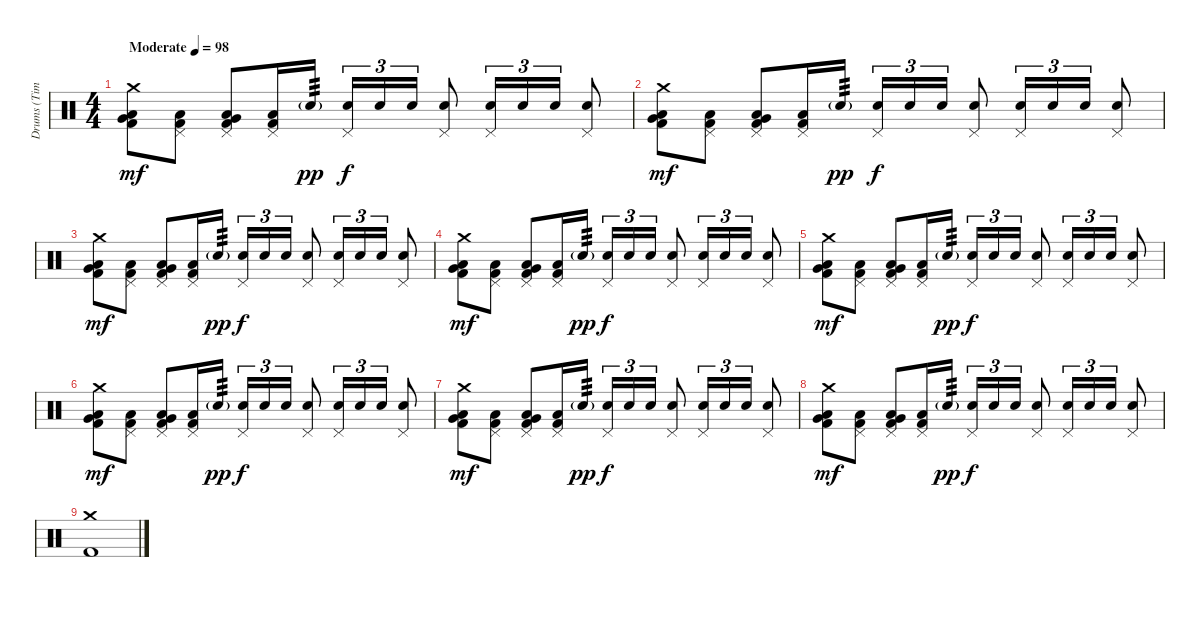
\track ("Drums (Tim Alexander)" "Drums (Tim") {instrument percussion}
\staff {score}
\articulation defaults
\ts (4 4)
\tempo (98 "Moderate")
\clef neutral
\ks c
("Crash medium (hit)" "Very Low Tom (hit)" "Low Floor Tom (hit)" "Kick (hit) 2").8{dy mf} ("Pedal Hi-Hat (hit)" "Low Floor Tom (hit)" "Kick (hit) 2").8 ("Pedal Hi-Hat (hit)" "Very Low Tom (hit)" "Low Floor Tom (hit)" "Kick (hit) 2").8 ("Pedal Hi-Hat (hit)" "Low Floor Tom (hit)" "Kick (hit) 2").16 "Electric Snare (hit)"{g}.16{tp 3 dy pp} ("Pedal Hi-Hat (hit)" "Electric Snare (hit)").16{tu (3 2) dy f} "Electric Snare (hit)".16{tu (3 2)} "Electric Snare (hit)".16{tu (3 2)} ("Pedal Hi-Hat (hit)" "Electric Snare (hit)").8 ("Pedal Hi-Hat (hit)" "Electric Snare (hit)").16{tu (3 2)} "Electric Snare (hit)".16{tu (3 2)} "Electric Snare (hit)".16{tu (3 2)} ("Pedal Hi-Hat (hit)" "Electric Snare (hit)").8 |
("Crash medium (hit)" "Very Low Tom (hit)" "Low Floor Tom (hit)" "Kick (hit) 2").8{dy mf} ("Pedal Hi-Hat (hit)" "Low Floor Tom (hit)" "Kick (hit) 2").8 ("Pedal Hi-Hat (hit)" "Very Low Tom (hit)" "Low Floor Tom (hit)" "Kick (hit) 2").8 ("Pedal Hi-Hat (hit)" "Low Floor Tom (hit)" "Kick (hit) 2").16 "Electric Snare (hit)"{g}.16{tp 3 dy pp} ("Pedal Hi-Hat (hit)" "Electric Snare (hit)").16{tu (3 2) dy f} "Electric Snare (hit)".16{tu (3 2)} "Electric Snare (hit)".16{tu (3 2)} ("Pedal Hi-Hat (hit)" "Electric Snare (hit)").8 ("Pedal Hi-Hat (hit)" "Electric Snare (hit)").16{tu (3 2)} "Electric Snare (hit)".16{tu (3 2)} "Electric Snare (hit)".16{tu (3 2)} ("Pedal Hi-Hat (hit)" "Electric Snare (hit)").8 |
("Crash medium (hit)" "Very Low Tom (hit)" "Low Floor Tom (hit)" "Kick (hit) 2").8{dy mf} ("Pedal Hi-Hat (hit)" "Low Floor Tom (hit)" "Kick (hit) 2").8 ("Pedal Hi-Hat (hit)" "Very Low Tom (hit)" "Low Floor Tom (hit)" "Kick (hit) 2").8 ("Pedal Hi-Hat (hit)" "Low Floor Tom (hit)" "Kick (hit) 2").16 "Electric Snare (hit)"{g}.16{tp 3 dy pp} ("Pedal Hi-Hat (hit)" "Electric Snare (hit)").16{tu (3 2) dy f} "Electric Snare (hit)".16{tu (3 2)} "Electric Snare (hit)".16{tu (3 2)} ("Pedal Hi-Hat (hit)" "Electric Snare (hit)").8 ("Pedal Hi-Hat (hit)" "Electric Snare (hit)").16{tu (3 2)} "Electric Snare (hit)".16{tu (3 2)} "Electric Snare (hit)".16{tu (3 2)} ("Pedal Hi-Hat (hit)" "Electric Snare (hit)").8 |
("Crash medium (hit)" "Very Low Tom (hit)" "Low Floor Tom (hit)" "Kick (hit) 2").8{dy mf} ("Pedal Hi-Hat (hit)" "Low Floor Tom (hit)" "Kick (hit) 2").8 ("Pedal Hi-Hat (hit)" "Very Low Tom (hit)" "Low Floor Tom (hit)" "Kick (hit) 2").8 ("Pedal Hi-Hat (hit)" "Low Floor Tom (hit)" "Kick (hit) 2").16 "Electric Snare (hit)"{g}.16{tp 3 dy pp} ("Pedal Hi-Hat (hit)" "Electric Snare (hit)").16{tu (3 2) dy f} "Electric Snare (hit)".16{tu (3 2)} "Electric Snare (hit)".16{tu (3 2)} ("Pedal Hi-Hat (hit)" "Electric Snare (hit)").8 ("Pedal Hi-Hat (hit)" "Electric Snare (hit)").16{tu (3 2)} "Electric Snare (hit)".16{tu (3 2)} "Electric Snare (hit)".16{tu (3 2)} ("Pedal Hi-Hat (hit)" "Electric Snare (hit)").8 |
("Crash medium (hit)" "Very Low Tom (hit)" "Low Floor Tom (hit)" "Kick (hit) 2").8{dy mf} ("Pedal Hi-Hat (hit)" "Low Floor Tom (hit)" "Kick (hit) 2").8 ("Pedal Hi-Hat (hit)" "Very Low Tom (hit)" "Low Floor Tom (hit)" "Kick (hit) 2").8 ("Pedal Hi-Hat (hit)" "Low Floor Tom (hit)" "Kick (hit) 2").16 "Electric Snare (hit)"{g}.16{tp 3 dy pp} ("Pedal Hi-Hat (hit)" "Electric Snare (hit)").16{tu (3 2) dy f} "Electric Snare (hit)".16{tu (3 2)} "Electric Snare (hit)".16{tu (3 2)} ("Pedal Hi-Hat (hit)" "Electric Snare (hit)").8 ("Pedal Hi-Hat (hit)" "Electric Snare (hit)").16{tu (3 2)} "Electric Snare (hit)".16{tu (3 2)} "Electric Snare (hit)".16{tu (3 2)} ("Pedal Hi-Hat (hit)" "Electric Snare (hit)").8 |
("Crash medium (hit)" "Very Low Tom (hit)" "Low Floor Tom (hit)" "Kick (hit) 2").8{dy mf} ("Pedal Hi-Hat (hit)" "Low Floor Tom (hit)" "Kick (hit) 2").8 ("Pedal Hi-Hat (hit)" "Very Low Tom (hit)" "Low Floor Tom (hit)" "Kick (hit) 2").8 ("Pedal Hi-Hat (hit)" "Low Floor Tom (hit)" "Kick (hit) 2").16 "Electric Snare (hit)"{g}.16{tp 3 dy pp} ("Pedal Hi-Hat (hit)" "Electric Snare (hit)").16{tu (3 2) dy f} "Electric Snare (hit)".16{tu (3 2)} "Electric Snare (hit)".16{tu (3 2)} ("Pedal Hi-Hat (hit)" "Electric Snare (hit)").8 ("Pedal Hi-Hat (hit)" "Electric Snare (hit)").16{tu (3 2)} "Electric Snare (hit)".16{tu (3 2)} "Electric Snare (hit)".16{tu (3 2)} ("Pedal Hi-Hat (hit)" "Electric Snare (hit)").8 |
("Crash medium (hit)" "Very Low Tom (hit)" "Low Floor Tom (hit)" "Kick (hit) 2").8{dy mf} ("Pedal Hi-Hat (hit)" "Low Floor Tom (hit)" "Kick (hit) 2").8 ("Pedal Hi-Hat (hit)" "Very Low Tom (hit)" "Low Floor Tom (hit)" "Kick (hit) 2").8 ("Pedal Hi-Hat (hit)" "Low Floor Tom (hit)" "Kick (hit) 2").16 "Electric Snare (hit)"{g}.16{tp 3 dy pp} ("Pedal Hi-Hat (hit)" "Electric Snare (hit)").16{tu (3 2) dy f} "Electric Snare (hit)".16{tu (3 2)} "Electric Snare (hit)".16{tu (3 2)} ("Pedal Hi-Hat (hit)" "Electric Snare (hit)").8 ("Pedal Hi-Hat (hit)" "Electric Snare (hit)").16{tu (3 2)} "Electric Snare (hit)".16{tu (3 2)} "Electric Snare (hit)".16{tu (3 2)} ("Pedal Hi-Hat (hit)" "Electric Snare (hit)").8 |
("Crash medium (hit)" "Very Low Tom (hit)" "Low Floor Tom (hit)" "Kick (hit) 2").8{dy mf} ("Pedal Hi-Hat (hit)" "Low Floor Tom (hit)" "Kick (hit) 2").8 ("Pedal Hi-Hat (hit)" "Very Low Tom (hit)" "Low Floor Tom (hit)" "Kick (hit) 2").8 ("Pedal Hi-Hat (hit)" "Low Floor Tom (hit)" "Kick (hit) 2").16 "Electric Snare (hit)"{g}.16{tp 3 dy pp} ("Pedal Hi-Hat (hit)" "Electric Snare (hit)").16{tu (3 2) dy f} "Electric Snare (hit)".16{tu (3 2)} "Electric Snare (hit)".16{tu (3 2)} ("Pedal Hi-Hat (hit)" "Electric Snare (hit)").8 ("Pedal Hi-Hat (hit)" "Electric Snare (hit)").16{tu (3 2)} "Electric Snare (hit)".16{tu (3 2)} "Electric Snare (hit)".16{tu (3 2)} ("Pedal Hi-Hat (hit)" "Electric Snare (hit)").8 |
("Crash medium (hit)" "Kick (hit) 2").1
